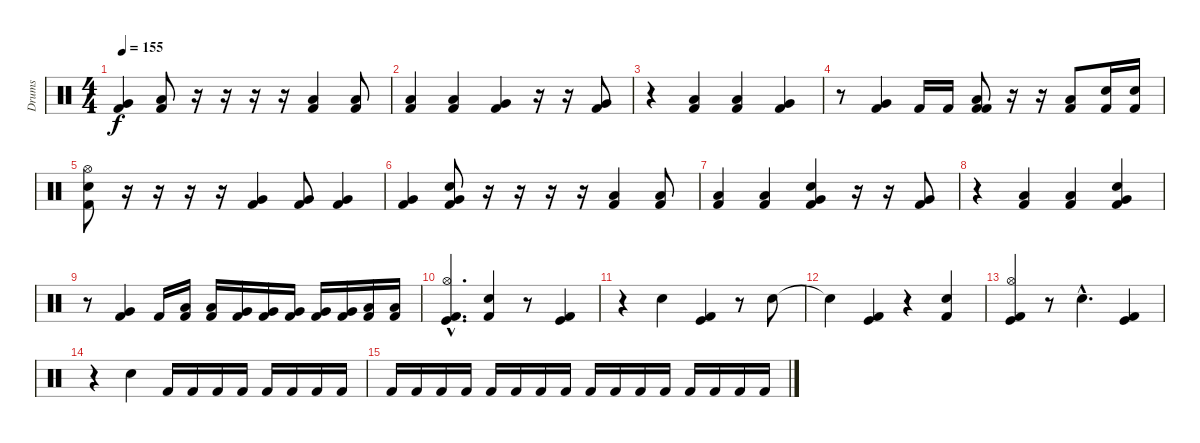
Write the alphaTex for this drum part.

\track ("Drums" "Drums") {instrument percussion}
\staff {score}
\articulation defaults
\ts (4 4)
\tempo 155
\clef neutral
\ks c
("Very Low Tom (hit)" "Kick (hit) 2").4{dy f} ("Low Tom (hit)" "Kick (hit) 2").8 r.16 r.16 r.16 r.16 ("Low Tom (hit)" "Kick (hit) 2").4 ("Low Tom (hit)" "Kick (hit) 2").8 |
("Low Tom (hit)" "Kick (hit) 2").4 ("Low Tom (hit)" "Kick (hit) 2").4 ("Very Low Tom (hit)" "Kick (hit) 2").4 r.16 r.16 ("Very Low Tom (hit)" "Kick (hit) 2").8 |
r.4 ("Low Tom (hit)" "Kick (hit) 2").4 ("Low Tom (hit)" "Kick (hit) 2").4 ("Very Low Tom (hit)" "Kick (hit) 2").4 |
r.8 ("Very Low Tom (hit)" "Kick (hit) 2").4 "Kick (hit) 2".16 "Kick (hit) 2".16 ("Low Tom (hit)" "Kick (hit) 2" "Kick (hit) 2").8 r.16 r.16 ("Low Tom (hit)" "Kick (hit) 2").8 ("Electric Snare (hit)" "Kick (hit) 2").16 ("Electric Snare (hit)" "Kick (hit) 2").16 |
("Hi-Hat (open)" "Electric Snare (hit)" "Kick (hit) 2").8 r.16 r.16 r.16 r.16 ("Very Low Tom (hit)" "Kick (hit) 2").4 ("Very Low Tom (hit)" "Kick (hit) 2").8 ("Very Low Tom (hit)" "Kick (hit) 2").4 |
("Very Low Tom (hit)" "Kick (hit) 2").4 ("Electric Snare (hit)" "Very Low Tom (hit)" "Kick (hit) 2").8 r.16 r.16 r.16 r.16 ("Low Tom (hit)" "Kick (hit) 2").4 ("Low Tom (hit)" "Kick (hit) 2").8 |
("Low Tom (hit)" "Kick (hit) 2").4 ("Low Tom (hit)" "Kick (hit) 2").4 ("Electric Snare (hit)" "Very Low Tom (hit)" "Kick (hit) 2").4 r.16 r.16 ("Very Low Tom (hit)" "Kick (hit) 2").8 |
r.4 ("Low Tom (hit)" "Kick (hit) 2").4 ("Low Tom (hit)" "Kick (hit) 2").4 ("Electric Snare (hit)" "Very Low Tom (hit)" "Kick (hit) 2").4 |
r.8 ("Very Low Tom (hit)" "Kick (hit) 2").4 "Kick (hit) 2".16 ("Low Tom (hit)" "Kick (hit) 2").16 ("Low Tom (hit)" "Kick (hit) 2").16 ("Very Low Tom (hit)" "Kick (hit) 2").16 ("Very Low Tom (hit)" "Kick (hit) 2").16 ("Very Low Tom (hit)" "Kick (hit) 2").16 ("Very Low Tom (hit)" "Kick (hit) 2").16 ("Very Low Tom (hit)" "Kick (hit) 2").16 ("Low Tom (hit)" "Kick (hit) 2").16 ("Low Tom (hit)" "Kick (hit) 2").16 |
("Hi-Hat (open)"{hac} "Kick (hit)"{hac} "Kick (hit) 2"{hac}).4{d} ("Electric Snare (hit)" "Kick (hit) 2").4 r.8 ("Kick (hit)" "Kick (hit) 2").4 |
r.4 "Electric Snare (hit)".4 ("Kick (hit)" "Kick (hit) 2").4 r.8 "Electric Snare (hit)".8 |
"Snare (hit)"{t}.4 ("Kick (hit) 2" "Kick (hit)").4 r.4 ("Electric Snare (hit)" "Kick (hit) 2").4 |
("Hi-Hat (open)" "Kick (hit)" "Kick (hit) 2").4 r.8 "Electric Snare (hit)"{hac}.4{d} ("Kick (hit) 2" "Kick (hit)").4 |
r.4 "Electric Snare (hit)".4 "Kick (hit) 2".16{volume 0} "Kick (hit) 2".16{volume 12} "Kick (hit) 2".16 "Kick (hit) 2".16 "Kick (hit) 2".16 "Kick (hit) 2".16 "Kick (hit) 2".16 "Kick (hit) 2".16 |
"Kick (hit) 2".16 "Kick (hit) 2".16 "Kick (hit) 2".16 "Kick (hit) 2".16 "Kick (hit) 2".16 "Kick (hit) 2".16 "Kick (hit) 2".16 "Kick (hit) 2".16 "Kick (hit) 2".16 "Kick (hit) 2".16 "Kick (hit) 2".16 "Kick (hit) 2".16 "Kick (hit) 2".16 "Kick (hit) 2".16 "Kick (hit) 2".16 "Kick (hit) 2".16
